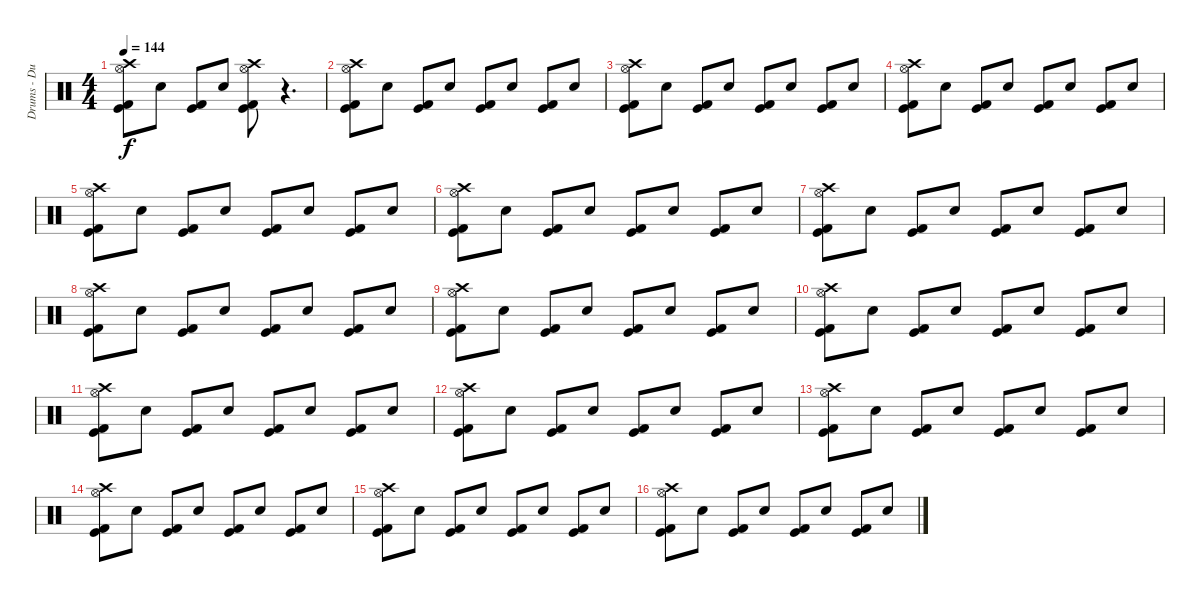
\track ("Drums - Duncan Scott" "Drums - Du") {instrument percussion}
\staff {score}
\articulation defaults
\ts (4 4)
\tempo 144
\clef neutral
\ks c
("Crash high (hit)" "Hi-Hat (open)" "Kick (hit)" "Kick (hit) 2").8{dy f} "Electric Snare (hit)".8 ("Kick (hit)" "Kick (hit) 2").8 "Electric Snare (hit)".8 ("Crash high (hit)" "Hi-Hat (open)" "Kick (hit)" "Kick (hit) 2").8 r.4{d} |
("Crash high (hit)" "Hi-Hat (open)" "Kick (hit)" "Kick (hit) 2").8 "Electric Snare (hit)".8 ("Kick (hit)" "Kick (hit) 2").8 "Electric Snare (hit)".8 ("Kick (hit)" "Kick (hit) 2").8 "Electric Snare (hit)".8 ("Kick (hit)" "Kick (hit) 2").8 "Electric Snare (hit)".8 |
("Crash high (hit)" "Hi-Hat (open)" "Kick (hit)" "Kick (hit) 2").8 "Electric Snare (hit)".8 ("Kick (hit)" "Kick (hit) 2").8 "Electric Snare (hit)".8 ("Kick (hit)" "Kick (hit) 2").8 "Electric Snare (hit)".8 ("Kick (hit)" "Kick (hit) 2").8 "Electric Snare (hit)".8 |
("Crash high (hit)" "Hi-Hat (open)" "Kick (hit)" "Kick (hit) 2").8 "Electric Snare (hit)".8 ("Kick (hit)" "Kick (hit) 2").8 "Electric Snare (hit)".8 ("Kick (hit)" "Kick (hit) 2").8 "Electric Snare (hit)".8 ("Kick (hit)" "Kick (hit) 2").8 "Electric Snare (hit)".8 |
("Crash high (hit)" "Hi-Hat (open)" "Kick (hit)" "Kick (hit) 2").8 "Electric Snare (hit)".8 ("Kick (hit)" "Kick (hit) 2").8 "Electric Snare (hit)".8 ("Kick (hit)" "Kick (hit) 2").8 "Electric Snare (hit)".8 ("Kick (hit)" "Kick (hit) 2").8 "Electric Snare (hit)".8 |
("Crash high (hit)" "Hi-Hat (open)" "Kick (hit)" "Kick (hit) 2").8 "Electric Snare (hit)".8 ("Kick (hit)" "Kick (hit) 2").8 "Electric Snare (hit)".8 ("Kick (hit)" "Kick (hit) 2").8 "Electric Snare (hit)".8 ("Kick (hit)" "Kick (hit) 2").8 "Electric Snare (hit)".8 |
("Crash high (hit)" "Hi-Hat (open)" "Kick (hit)" "Kick (hit) 2").8 "Electric Snare (hit)".8 ("Kick (hit)" "Kick (hit) 2").8 "Electric Snare (hit)".8 ("Kick (hit)" "Kick (hit) 2").8 "Electric Snare (hit)".8 ("Kick (hit)" "Kick (hit) 2").8 "Electric Snare (hit)".8 |
("Crash high (hit)" "Hi-Hat (open)" "Kick (hit)" "Kick (hit) 2").8 "Electric Snare (hit)".8 ("Kick (hit)" "Kick (hit) 2").8 "Electric Snare (hit)".8 ("Kick (hit)" "Kick (hit) 2").8 "Electric Snare (hit)".8 ("Kick (hit)" "Kick (hit) 2").8 "Electric Snare (hit)".8 |
("Crash high (hit)" "Hi-Hat (open)" "Kick (hit)" "Kick (hit) 2").8 "Electric Snare (hit)".8 ("Kick (hit)" "Kick (hit) 2").8 "Electric Snare (hit)".8 ("Kick (hit)" "Kick (hit) 2").8 "Electric Snare (hit)".8 ("Kick (hit)" "Kick (hit) 2").8 "Electric Snare (hit)".8 |
("Crash high (hit)" "Hi-Hat (open)" "Kick (hit)" "Kick (hit) 2").8 "Electric Snare (hit)".8 ("Kick (hit)" "Kick (hit) 2").8 "Electric Snare (hit)".8 ("Kick (hit)" "Kick (hit) 2").8 "Electric Snare (hit)".8 ("Kick (hit)" "Kick (hit) 2").8 "Electric Snare (hit)".8 |
("Crash high (hit)" "Hi-Hat (open)" "Kick (hit)" "Kick (hit) 2").8 "Electric Snare (hit)".8 ("Kick (hit)" "Kick (hit) 2").8 "Electric Snare (hit)".8 ("Kick (hit)" "Kick (hit) 2").8 "Electric Snare (hit)".8 ("Kick (hit)" "Kick (hit) 2").8 "Electric Snare (hit)".8 |
("Crash high (hit)" "Hi-Hat (open)" "Kick (hit)" "Kick (hit) 2").8 "Electric Snare (hit)".8 ("Kick (hit)" "Kick (hit) 2").8 "Electric Snare (hit)".8 ("Kick (hit)" "Kick (hit) 2").8 "Electric Snare (hit)".8 ("Kick (hit)" "Kick (hit) 2").8 "Electric Snare (hit)".8 |
("Crash high (hit)" "Hi-Hat (open)" "Kick (hit)" "Kick (hit) 2").8 "Electric Snare (hit)".8 ("Kick (hit)" "Kick (hit) 2").8 "Electric Snare (hit)".8 ("Kick (hit)" "Kick (hit) 2").8 "Electric Snare (hit)".8 ("Kick (hit)" "Kick (hit) 2").8 "Electric Snare (hit)".8 |
("Crash high (hit)" "Hi-Hat (open)" "Kick (hit)" "Kick (hit) 2").8 "Electric Snare (hit)".8 ("Kick (hit)" "Kick (hit) 2").8 "Electric Snare (hit)".8 ("Kick (hit)" "Kick (hit) 2").8 "Electric Snare (hit)".8 ("Kick (hit)" "Kick (hit) 2").8 "Electric Snare (hit)".8 |
("Crash high (hit)" "Hi-Hat (open)" "Kick (hit)" "Kick (hit) 2").8 "Electric Snare (hit)".8 ("Kick (hit)" "Kick (hit) 2").8 "Electric Snare (hit)".8 ("Kick (hit)" "Kick (hit) 2").8 "Electric Snare (hit)".8 ("Kick (hit)" "Kick (hit) 2").8 "Electric Snare (hit)".8 |
("Crash high (hit)" "Hi-Hat (open)" "Kick (hit)" "Kick (hit) 2").8 "Electric Snare (hit)".8 ("Kick (hit)" "Kick (hit) 2").8 "Electric Snare (hit)".8 ("Kick (hit)" "Kick (hit) 2").8 "Electric Snare (hit)".8 ("Kick (hit)" "Kick (hit) 2").8 "Electric Snare (hit)".8
